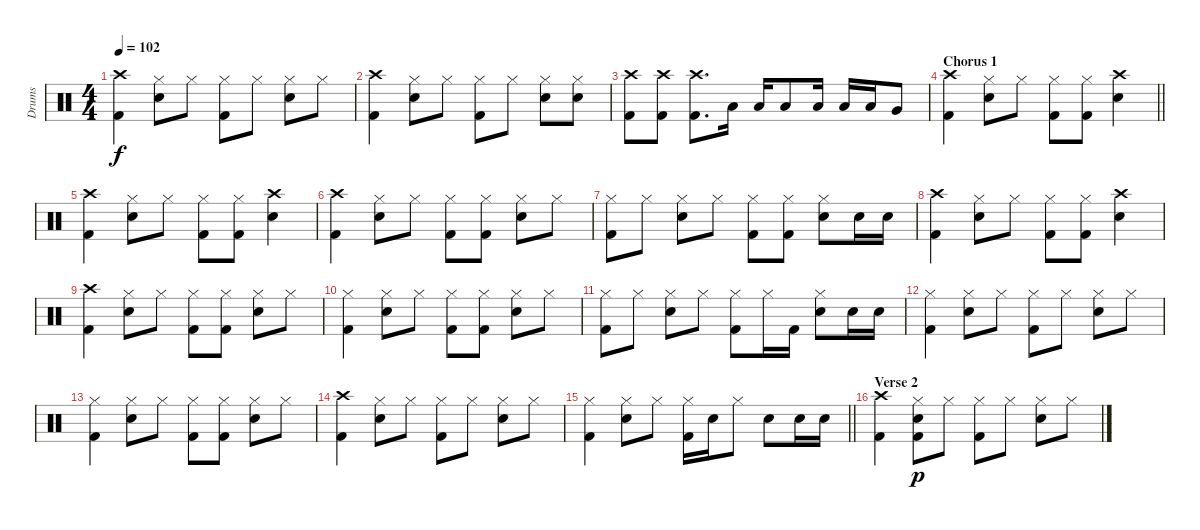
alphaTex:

\track ("Drums" "Drums") {instrument percussion}
\staff {score}
\articulation defaults
\ts (4 4)
\tempo 102
\clef neutral
\ks c
("Crash high (hit)" "Kick (hit) 2").4{dy f} ("Hi-Hat (closed)" "Snare (hit) 2").8 "Hi-Hat (closed)".8 ("Hi-Hat (closed)" "Kick (hit) 2").8 "Hi-Hat (closed)".8 ("Hi-Hat (closed)" "Snare (hit) 2").8 "Hi-Hat (closed)".8 |
("Crash high (hit)" "Kick (hit) 2").4 ("Hi-Hat (closed)" "Snare (hit) 2").8 "Hi-Hat (closed)".8 ("Hi-Hat (closed)" "Kick (hit) 2").8 "Hi-Hat (closed)".8 ("Hi-Hat (closed)" "Snare (hit) 2").8 ("Hi-Hat (closed)" "Snare (hit) 2").8 |
("Crash high (hit)" "Kick (hit) 2").8 ("Crash high (hit)" "Kick (hit) 2").8 ("Crash high (hit)" "Kick (hit) 2").8{d} "Low Tom (hit)".16 "Low Tom (hit)".16 "Low Tom (hit)".8 "Low Tom (hit)".16 "Low Tom (hit)".16 "Low Tom (hit)".16 "Very Low Tom (hit)".8 |
\section ("" "Chorus 1")
\barLineRight lightlight
("Crash high (hit)" "Kick (hit) 2").4 ("Hi-Hat (closed)" "Snare (hit) 2").8 "Hi-Hat (closed)".8 ("Hi-Hat (closed)" "Kick (hit) 2").8 ("Hi-Hat (closed)" "Kick (hit) 2").8 ("Crash high (hit)" "Snare (hit) 2").4 |
("Crash high (hit)" "Kick (hit) 2").4 ("Hi-Hat (closed)" "Snare (hit) 2").8 "Hi-Hat (closed)".8 ("Hi-Hat (closed)" "Kick (hit) 2").8 ("Hi-Hat (closed)" "Kick (hit) 2").8 ("Crash high (hit)" "Snare (hit) 2").4 |
("Crash high (hit)" "Kick (hit) 2").4 ("Hi-Hat (closed)" "Snare (hit) 2").8 "Hi-Hat (closed)".8 ("Hi-Hat (closed)" "Kick (hit) 2").8 ("Hi-Hat (closed)" "Kick (hit) 2").8 ("Hi-Hat (closed)" "Snare (hit) 2").8 "Hi-Hat (closed)".8 |
("Hi-Hat (closed)" "Kick (hit) 2").8 "Hi-Hat (closed)".8 ("Hi-Hat (closed)" "Snare (hit) 2").8 "Hi-Hat (closed)".8 ("Hi-Hat (closed)" "Kick (hit) 2").8 ("Hi-Hat (closed)" "Kick (hit) 2").8 ("Hi-Hat (closed)" "Snare (hit) 2").8 "Snare (hit) 2".16 "Snare (hit) 2".16 |
("Crash high (hit)" "Kick (hit) 2").4 ("Hi-Hat (closed)" "Snare (hit) 2").8 "Hi-Hat (closed)".8 ("Hi-Hat (closed)" "Kick (hit) 2").8 ("Hi-Hat (closed)" "Kick (hit) 2").8 ("Crash high (hit)" "Snare (hit) 2").4 |
("Crash high (hit)" "Kick (hit) 2").4 ("Hi-Hat (closed)" "Snare (hit) 2").8 "Hi-Hat (closed)".8 ("Hi-Hat (closed)" "Kick (hit) 2").8 ("Hi-Hat (closed)" "Kick (hit) 2").8 ("Hi-Hat (closed)" "Snare (hit) 2").8 "Hi-Hat (closed)".8 |
("Hi-Hat (closed)" "Kick (hit) 2").4 ("Hi-Hat (closed)" "Snare (hit) 2").8 "Hi-Hat (closed)".8 ("Hi-Hat (closed)" "Kick (hit) 2").8 ("Hi-Hat (closed)" "Kick (hit) 2").8 ("Hi-Hat (closed)" "Snare (hit) 2").8 "Hi-Hat (closed)".8 |
("Hi-Hat (closed)" "Kick (hit) 2").8 "Hi-Hat (closed)".8 ("Hi-Hat (closed)" "Snare (hit) 2").8 "Hi-Hat (closed)".8 ("Hi-Hat (closed)" "Kick (hit) 2").8 "Hi-Hat (closed)".16 "Kick (hit) 2".16 ("Hi-Hat (closed)" "Snare (hit) 2").8 "Snare (hit) 2".16 "Snare (hit) 2".16 |
("Hi-Hat (closed)" "Kick (hit) 2").4 ("Hi-Hat (closed)" "Snare (hit) 2").8 "Hi-Hat (closed)".8 ("Hi-Hat (closed)" "Kick (hit) 2").8 "Hi-Hat (closed)".8 ("Hi-Hat (closed)" "Snare (hit) 2").8 "Hi-Hat (closed)".8 |
("Hi-Hat (closed)" "Kick (hit) 2").4 ("Hi-Hat (closed)" "Snare (hit) 2").8 "Hi-Hat (closed)".8 ("Hi-Hat (closed)" "Kick (hit) 2").8 ("Hi-Hat (closed)" "Kick (hit) 2").8 ("Hi-Hat (closed)" "Snare (hit) 2").8 "Hi-Hat (closed)".8 |
("Crash high (hit)" "Kick (hit) 2").4 ("Hi-Hat (closed)" "Snare (hit) 2").8 "Hi-Hat (closed)".8 ("Hi-Hat (closed)" "Kick (hit) 2").8 "Hi-Hat (closed)".8 ("Hi-Hat (closed)" "Snare (hit) 2").8 "Hi-Hat (closed)".8 |
\barLineRight lightlight
("Hi-Hat (closed)" "Kick (hit) 2").4 ("Hi-Hat (closed)" "Snare (hit) 2").8 "Hi-Hat (closed)".8 ("Hi-Hat (closed)" "Kick (hit) 2").16 "Snare (hit) 2".16 "Hi-Hat (closed)".8 "Snare (hit) 2".8 "Snare (hit) 2".16 "Snare (hit) 2".16 |
\section ("" "Verse 2")
("Kick (hit) 2" "Crash high (hit)").4 ("Kick (hit) 2" "Hi-Hat (closed)" "Snare (hit) 2").8{dy p} "Hi-Hat (closed)".8 ("Kick (hit) 2" "Hi-Hat (closed)").8 "Hi-Hat (closed)".8 ("Hi-Hat (closed)" "Snare (hit) 2").8 "Hi-Hat (closed)".8
